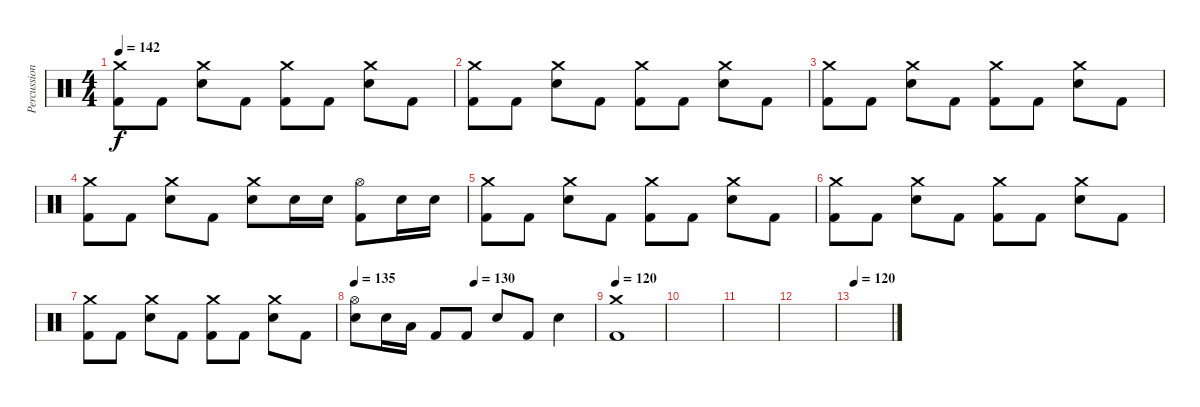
\track ("Percussion" "Percussion") {instrument percussion}
\staff {score}
\articulation defaults
\ts (4 4)
\tempo 142
\clef neutral
\ks c
("Crash medium (hit)" "Kick (hit) 2").8{dy f} "Kick (hit) 2".8 ("Crash medium (hit)" "Electric Snare (hit)").8 "Kick (hit) 2".8 ("Crash medium (hit)" "Kick (hit) 2").8 "Kick (hit) 2".8 ("Crash medium (hit)" "Electric Snare (hit)").8 "Kick (hit) 2".8 |
("Crash medium (hit)" "Kick (hit) 2").8 "Kick (hit) 2".8 ("Crash medium (hit)" "Electric Snare (hit)").8 "Kick (hit) 2".8 ("Crash medium (hit)" "Kick (hit) 2").8 "Kick (hit) 2".8 ("Crash medium (hit)" "Electric Snare (hit)").8 "Kick (hit) 2".8 |
("Crash medium (hit)" "Kick (hit) 2").8 "Kick (hit) 2".8 ("Crash medium (hit)" "Electric Snare (hit)").8 "Kick (hit) 2".8 ("Crash medium (hit)" "Kick (hit) 2").8 "Kick (hit) 2".8 ("Crash medium (hit)" "Electric Snare (hit)").8 "Kick (hit) 2".8 |
("Crash medium (hit)" "Kick (hit) 2").8 "Kick (hit) 2".8 ("Crash medium (hit)" "Electric Snare (hit)").8 "Kick (hit) 2".8 ("Crash medium (hit)" "Electric Snare (hit)").8 "Electric Snare (hit)".16 "Electric Snare (hit)".16 ("Hi-Hat (open)" "Kick (hit) 2").8 "Electric Snare (hit)".16 "Electric Snare (hit)".16 |
("Crash medium (hit)" "Kick (hit) 2").8 "Kick (hit) 2".8 ("Crash medium (hit)" "Electric Snare (hit)").8 "Kick (hit) 2".8 ("Crash medium (hit)" "Kick (hit) 2").8 "Kick (hit) 2".8 ("Crash medium (hit)" "Electric Snare (hit)").8 "Kick (hit) 2".8 |
("Crash medium (hit)" "Kick (hit) 2").8 "Kick (hit) 2".8 ("Crash medium (hit)" "Electric Snare (hit)").8 "Kick (hit) 2".8 ("Crash medium (hit)" "Kick (hit) 2").8 "Kick (hit) 2".8 ("Crash medium (hit)" "Electric Snare (hit)").8 "Kick (hit) 2".8 |
("Crash medium (hit)" "Kick (hit) 2").8 "Kick (hit) 2".8 ("Crash medium (hit)" "Electric Snare (hit)").8 "Kick (hit) 2".8 ("Crash medium (hit)" "Kick (hit) 2").8 "Kick (hit) 2".8 ("Crash medium (hit)" "Electric Snare (hit)").8 "Kick (hit) 2".8 |
\tempo 135
\tempo (130 0.5)
("Hi-Hat (open)" "Electric Snare (hit)").8 "Electric Snare (hit)".16 "Low Floor Tom (hit)".16 "Kick (hit) 2".8 "Kick (hit) 2".8 "Electric Snare (hit)".8 "Kick (hit) 2".8 "Electric Snare (hit)".4 |
\tempo 120
("Crash medium (hit)" "Kick (hit) 2").1 |
|
|
|
\tempo 120
